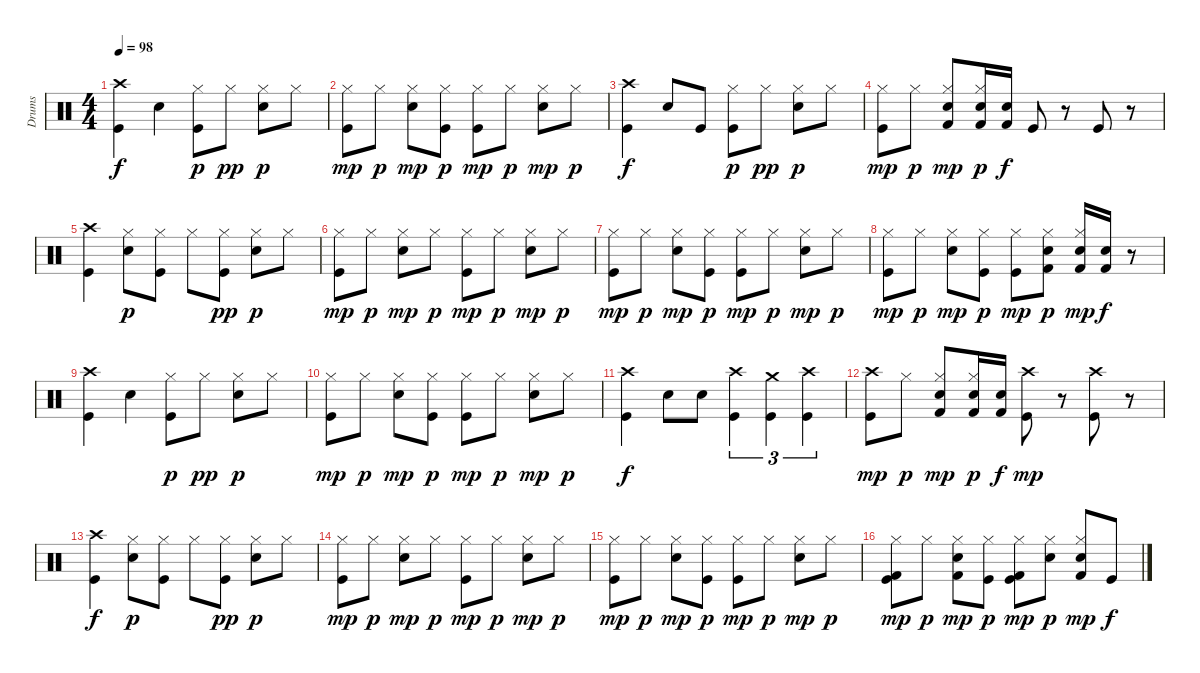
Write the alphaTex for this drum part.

\track ("Drums" "Drums") {instrument percussion}
\staff {score}
\articulation defaults
\ts (4 4)
\tempo 98
\clef neutral
\ks c
("Crash high (hit)" "Kick (hit)").4{dy f} "Snare (hit) 2".4 ("Kick (hit)" "Hi-Hat (closed)").8{dy p} "Hi-Hat (closed)".8{dy pp} ("Hi-Hat (closed)" "Snare (hit) 2").8{dy p} "Hi-Hat (closed)".8 |
("Kick (hit)" "Hi-Hat (closed)").8{dy mp} "Hi-Hat (closed)".8{dy p} ("Hi-Hat (closed)" "Snare (hit) 2").8{dy mp} ("Kick (hit)" "Hi-Hat (closed)").8{dy p} ("Hi-Hat (closed)" "Kick (hit)").8{dy mp} "Hi-Hat (closed)".8{dy p} ("Snare (hit) 2" "Hi-Hat (closed)").8{dy mp} "Hi-Hat (closed)".8{dy p} |
("Kick (hit)" "Crash high (hit)").4{dy f} "Snare (hit) 2".8 "Kick (hit)".8 ("Kick (hit)" "Hi-Hat (closed)").8{dy p} "Hi-Hat (closed)".8{dy pp} ("Hi-Hat (closed)" "Snare (hit) 2").8{dy p} "Hi-Hat (closed)".8 |
("Kick (hit)" "Hi-Hat (closed)").8{dy mp} "Hi-Hat (closed)".8{dy p} ("Snare (hit) 2" "Hi-Hat (closed)" "Kick (hit) 2").8{dy mp} ("Snare (hit) 2" "Hi-Hat (closed)" "Kick (hit) 2").16{dy p} ("Snare (hit) 2" "Kick (hit) 2").16{dy f} "Kick (hit)".8 r.8 "Kick (hit)".8 r.8 |
("Kick (hit)" "Crash high (hit)").4 ("Snare (hit) 2" "Hi-Hat (closed)").8{dy p} ("Kick (hit)" "Hi-Hat (closed)").8 "Hi-Hat (closed)".8 ("Kick (hit)" "Hi-Hat (closed)").8{dy pp} ("Snare (hit) 2" "Hi-Hat (closed)").8{dy p} "Hi-Hat (closed)".8 |
("Kick (hit)" "Hi-Hat (closed)").8{dy mp} "Hi-Hat (closed)".8{dy p} ("Snare (hit) 2" "Hi-Hat (closed)").8{dy mp} "Hi-Hat (closed)".8{dy p} ("Kick (hit)" "Hi-Hat (closed)").8{dy mp} "Hi-Hat (closed)".8{dy p} ("Snare (hit) 2" "Hi-Hat (closed)").8{dy mp} "Hi-Hat (closed)".8{dy p} |
("Kick (hit)" "Hi-Hat (closed)").8{dy mp} "Hi-Hat (closed)".8{dy p} ("Snare (hit) 2" "Hi-Hat (closed)").8{dy mp} ("Kick (hit)" "Hi-Hat (closed)").8{dy p} ("Kick (hit)" "Hi-Hat (closed)").8{dy mp} "Hi-Hat (closed)".8{dy p} ("Snare (hit) 2" "Hi-Hat (closed)").8{dy mp} "Hi-Hat (closed)".8{dy p} |
("Kick (hit)" "Hi-Hat (closed)").8{dy mp} "Hi-Hat (closed)".8{dy p} ("Snare (hit) 2" "Hi-Hat (closed)").8{dy mp} ("Kick (hit)" "Hi-Hat (closed)").8{dy p} ("Kick (hit)" "Hi-Hat (closed)").8{dy mp} ("Snare (hit) 2" "Hi-Hat (closed)" "Kick (hit) 2").8{dy p} ("Snare (hit) 2" "Hi-Hat (closed)" "Kick (hit) 2").16{dy mp} ("Snare (hit) 2" "Kick (hit) 2").16{dy f} r.8 |
("Crash high (hit)" "Kick (hit)").4 "Snare (hit) 2".4 ("Kick (hit)" "Hi-Hat (closed)").8{dy p} "Hi-Hat (closed)".8{dy pp} ("Hi-Hat (closed)" "Snare (hit) 2").8{dy p} "Hi-Hat (closed)".8 |
("Kick (hit)" "Hi-Hat (closed)").8{dy mp} "Hi-Hat (closed)".8{dy p} ("Hi-Hat (closed)" "Snare (hit) 2").8{dy mp} ("Kick (hit)" "Hi-Hat (closed)").8{dy p} ("Hi-Hat (closed)" "Kick (hit)").8{dy mp} "Hi-Hat (closed)".8{dy p} ("Snare (hit) 2" "Hi-Hat (closed)").8{dy mp} "Hi-Hat (closed)".8{dy p} |
("Kick (hit)" "Crash high (hit)").4{dy f} "Snare (hit) 2".8 "Snare (hit) 2".8 ("Crash high (hit)" "Kick (hit)").4{tu (3 2)} ("Crash medium (hit)" "Kick (hit)").4{tu (3 2)} ("Crash high (hit)" "Kick (hit)").4{tu (3 2)} |
("Kick (hit)" "Crash high (hit)").8{dy mp} "Hi-Hat (closed)".8{dy p} ("Snare (hit) 2" "Hi-Hat (closed)" "Kick (hit) 2").8{dy mp} ("Snare (hit) 2" "Hi-Hat (closed)" "Kick (hit) 2").16{dy p} ("Snare (hit) 2" "Kick (hit) 2").16{dy f} ("Crash high (hit)" "Kick (hit)").8{dy mp} r.8 ("Crash high (hit)" "Kick (hit)").8 r.8 |
("Kick (hit)" "Crash high (hit)").4{dy f} ("Snare (hit) 2" "Hi-Hat (closed)").8{dy p} ("Kick (hit)" "Hi-Hat (closed)").8 "Hi-Hat (closed)".8 ("Kick (hit)" "Hi-Hat (closed)").8{dy pp} ("Snare (hit) 2" "Hi-Hat (closed)").8{dy p} "Hi-Hat (closed)".8 |
("Kick (hit)" "Hi-Hat (closed)").8{dy mp} "Hi-Hat (closed)".8{dy p} ("Snare (hit) 2" "Hi-Hat (closed)").8{dy mp} "Hi-Hat (closed)".8{dy p} ("Kick (hit)" "Hi-Hat (closed)").8{dy mp} "Hi-Hat (closed)".8{dy p} ("Snare (hit) 2" "Hi-Hat (closed)").8{dy mp} "Hi-Hat (closed)".8{dy p} |
("Kick (hit)" "Hi-Hat (closed)").8{dy mp} "Hi-Hat (closed)".8{dy p} ("Snare (hit) 2" "Hi-Hat (closed)").8{dy mp} ("Kick (hit)" "Hi-Hat (closed)").8{dy p} ("Kick (hit)" "Hi-Hat (closed)").8{dy mp} "Hi-Hat (closed)".8{dy p} ("Snare (hit) 2" "Hi-Hat (closed)").8{dy mp} "Hi-Hat (closed)".8{dy p} |
("Kick (hit)" "Hi-Hat (closed)" "Kick (hit) 2").8{dy mp} "Hi-Hat (closed)".8{dy p} ("Snare (hit) 2" "Hi-Hat (closed)" "Kick (hit) 2").8{dy mp} ("Kick (hit)" "Hi-Hat (closed)").8{dy p} ("Kick (hit)" "Hi-Hat (closed)" "Kick (hit) 2").8{dy mp} ("Snare (hit) 2" "Hi-Hat (closed)").8{dy p} ("Snare (hit) 2" "Hi-Hat (closed)" "Kick (hit) 2").8{dy mp} "Kick (hit)".8{dy f}
